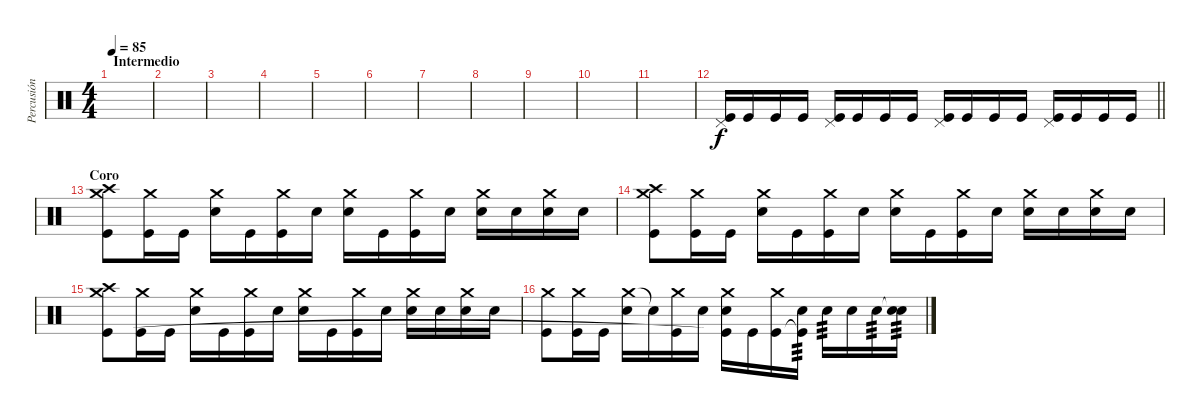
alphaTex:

\track ("Percusión" "Percusión") {instrument percussion}
\staff {score}
\articulation defaults
\ts (4 4)
\section ("" "Intermedio")
\tempo 85
\clef neutral
\ks c
|
|
|
|
|
|
|
|
|
|
|
\barLineRight lightlight
("Pedal Hi-Hat (hit)" "Kick (hit)").16 "Kick (hit)".16 "Kick (hit)".16 "Kick (hit)".16 ("Pedal Hi-Hat (hit)" "Kick (hit)").16 "Kick (hit)".16 "Kick (hit)".16 "Kick (hit)".16 ("Pedal Hi-Hat (hit)" "Kick (hit)").16 "Kick (hit)".16 "Kick (hit)".16 "Kick (hit)".16 ("Pedal Hi-Hat (hit)" "Kick (hit)").16 "Kick (hit)".16 "Kick (hit)".16 "Kick (hit)".16 |
\section ("" "Coro")
("Crash medium (hit)" "Crash high (hit)" "Kick (hit)").8 ("Crash medium (hit)" "Kick (hit)").16 "Kick (hit)".16 ("Crash medium (hit)" "Electric Snare (hit)").16 "Kick (hit)".16 ("Crash medium (hit)" "Kick (hit)").16 "Electric Snare (hit)".16 ("Crash medium (hit)" "Electric Snare (hit)").16 "Kick (hit)".16 ("Crash medium (hit)" "Kick (hit)").16 "Electric Snare (hit)".16 ("Crash medium (hit)" "Electric Snare (hit)").16 "Electric Snare (hit)".16 ("Crash medium (hit)" "Electric Snare (hit)").16 "Electric Snare (hit)".16 |
("Crash medium (hit)" "Crash high (hit)" "Kick (hit)").8 ("Crash medium (hit)" "Kick (hit)").16 "Kick (hit)".16 ("Crash medium (hit)" "Electric Snare (hit)").16 "Kick (hit)".16 ("Crash medium (hit)" "Kick (hit)").16 "Electric Snare (hit)".16 ("Crash medium (hit)" "Electric Snare (hit)").16 "Kick (hit)".16 ("Crash medium (hit)" "Kick (hit)").16 "Electric Snare (hit)".16 ("Crash medium (hit)" "Electric Snare (hit)").16 "Electric Snare (hit)".16 ("Crash medium (hit)" "Electric Snare (hit)").16 "Electric Snare (hit)".16 |
("Crash medium (hit)" "Crash high (hit)" "Kick (hit)").8 ("Crash medium (hit)" "Kick (hit)").16 "Kick (hit)".16 ("Crash medium (hit)" "Electric Snare (hit)").16 "Kick (hit)".16 ("Crash medium (hit)" "Kick (hit)").16 "Electric Snare (hit)".16 ("Crash medium (hit)" "Electric Snare (hit)").16 "Kick (hit)".16 ("Crash medium (hit)" "Kick (hit)").16 "Electric Snare (hit)".16 ("Crash medium (hit)" "Electric Snare (hit)").16 "Electric Snare (hit)".16 ("Crash medium (hit)" "Electric Snare (hit)").16 "Electric Snare (hit)".16 |
("Crash medium (hit)" "Kick (hit)").8 ("Crash medium (hit)" "Kick (hit)").16 "Kick (hit)".16 ("Crash medium (hit)" "Electric Snare (hit)").16 "Snare (hit)"{t}.16 ("Crash medium (hit)" "Kick (hit)").16 "Electric Snare (hit)".16 ("Crash medium (hit)" "Electric Snare (hit)" "Kick (hit)"{t}).16 "Kick (hit)".16 ("Crash medium (hit)" "Kick (hit)").16 ("Electric Snare (hit)" "Kick (hit)"{t}).16{tp 3} "Electric Snare (hit)".16{tp 3} "Electric Snare (hit)".16 "Electric Snare (hit)".16{tp 3} ("Snare (hit)"{t} "Electric Snare (hit)").16{tp 3}
